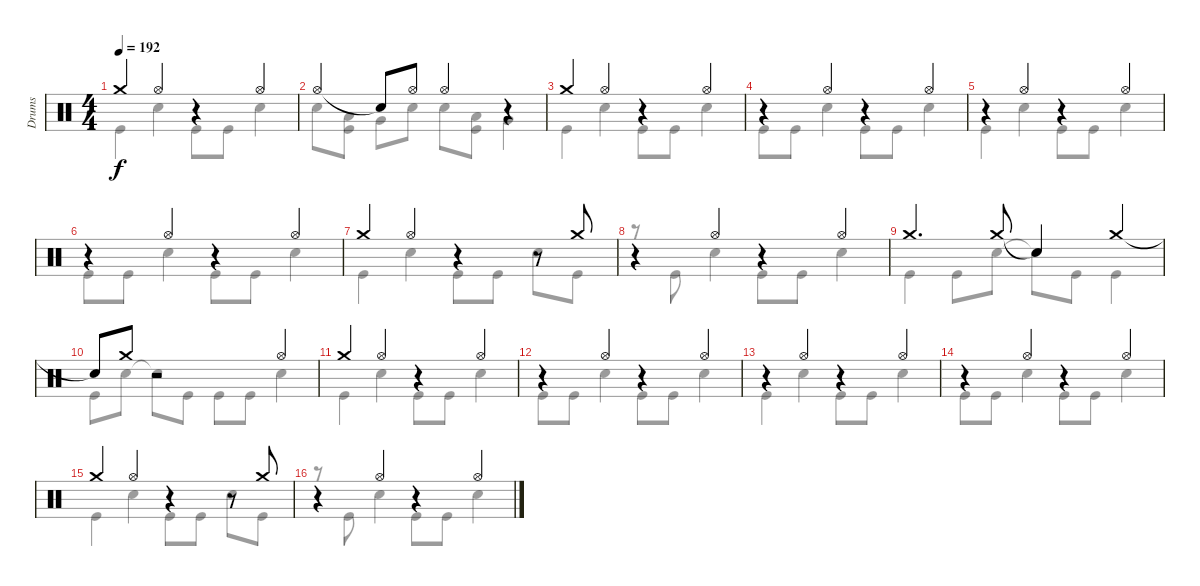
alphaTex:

\track ("Drums" "Drums") {instrument percussion}
\staff {score}
\articulation defaults
\voice
\ts (4 4)
\tempo 192
\clef neutral
\ks c "Crash medium (hit)".4{dy f} "Hi-Hat (open)".4
r.4 "Hi-Hat (open)".4 |
"Hi-Hat (open)".4 "Snare (hit)"{t}.8 "Hi-Hat (open)".8 "Hi-Hat (open)".4 r.4 |
"Crash medium (hit)".4 "Hi-Hat (open)".4 r.4 "Hi-Hat (open)".4 |
r.4 "Hi-Hat (open)".4 r.4 "Hi-Hat (open)".4 |
r.4 "Hi-Hat (open)".4 r.4 "Hi-Hat (open)".4 |
r.4 "Hi-Hat (open)".4 r.4 "Hi-Hat (open)".4 |
"Crash medium (hit)".4 "Hi-Hat (open)".4 r.4 r.8 "Crash medium (hit)".8 |
r.4 "Hi-Hat (open)".4 r.4 "Hi-Hat (open)".4 |
"Crash medium (hit)".4{d} "Crash medium (hit)".8 "Snare (hit)"{t}.4 "Crash medium (hit)".4 |
"Snare (hit)"{t}.8 "Crash medium (hit)".8 r.2 "Hi-Hat (open)".4 |
"Crash medium (hit)".4 "Hi-Hat (open)".4 r.4 "Hi-Hat (open)".4 |
r.4 "Hi-Hat (open)".4 r.4 "Hi-Hat (open)".4 |
r.4 "Hi-Hat (open)".4 r.4 "Hi-Hat (open)".4 |
r.4 "Hi-Hat (open)".4 r.4 "Hi-Hat (open)".4 |
"Crash medium (hit)".4 "Hi-Hat (open)".4 r.4 r.8 "Crash medium (hit)".8 |
r.4 "Hi-Hat (open)".4 r.4 "Hi-Hat (open)".4
\voice
\clef neutral
\ottava regular
\simile none
\ks c "Kick (hit)".4{dy f} "Snare (hit) 2".4 "Kick (hit)".8 "Kick (hit)".8 "Snare (hit) 2".4
|
"Snare (hit) 2".8 ("Low Tom (hit)" "Kick (hit)").8 "Very Low Tom (hit)".8 "Snare (hit) 2".8 "Snare (hit) 2".8 ("Low Tom (hit)" "Kick (hit)").8 "Very Low Tom (hit)".4 |
"Kick (hit)".4 "Snare (hit) 2".4 "Kick (hit)".8 "Kick (hit)".8 "Snare (hit) 2".4 |
"Kick (hit)".8 "Kick (hit)".8 "Snare (hit) 2".4 "Kick (hit)".8 "Kick (hit)".8 "Snare (hit) 2".4 |
"Kick (hit)".4 "Snare (hit) 2".4 "Kick (hit)".8 "Kick (hit)".8 "Snare (hit) 2".4 |
"Kick (hit)".8 "Kick (hit)".8 "Snare (hit) 2".4 "Kick (hit)".8 "Kick (hit)".8 "Snare (hit) 2".4 |
"Kick (hit)".4 "Snare (hit) 2".4 "Kick (hit)".8 "Kick (hit)".8 "Snare (hit) 2".8 "Kick (hit)".8 |
r.8 "Kick (hit)".8 "Snare (hit) 2".4 "Kick (hit)".8 "Kick (hit)".8 "Snare (hit) 2".4 |
"Kick (hit)".4 "Kick (hit)".8 "Snare (hit) 2".8 "Snare (hit)"{t}.8 "Kick (hit)".8 "Kick (hit)".4 |
"Kick (hit)".8 "Snare (hit) 2".8 "Snare (hit)"{t}.8 "Kick (hit)".8 "Kick (hit)".8 "Kick (hit)".8 "Snare (hit) 2".4 |
"Kick (hit)".4 "Snare (hit) 2".4 "Kick (hit)".8 "Kick (hit)".8 "Snare (hit) 2".4 |
"Kick (hit)".8 "Kick (hit)".8 "Snare (hit) 2".4 "Kick (hit)".8 "Kick (hit)".8 "Snare (hit) 2".4 |
"Kick (hit)".4 "Snare (hit) 2".4 "Kick (hit)".8 "Kick (hit)".8 "Snare (hit) 2".4 |
"Kick (hit)".8 "Kick (hit)".8 "Snare (hit) 2".4 "Kick (hit)".8 "Kick (hit)".8 "Snare (hit) 2".4 |
"Kick (hit)".4 "Snare (hit) 2".4 "Kick (hit)".8 "Kick (hit)".8 "Snare (hit) 2".8 "Kick (hit)".8 |
r.8 "Kick (hit)".8 "Snare (hit) 2".4 "Kick (hit)".8 "Kick (hit)".8 "Snare (hit) 2".4
